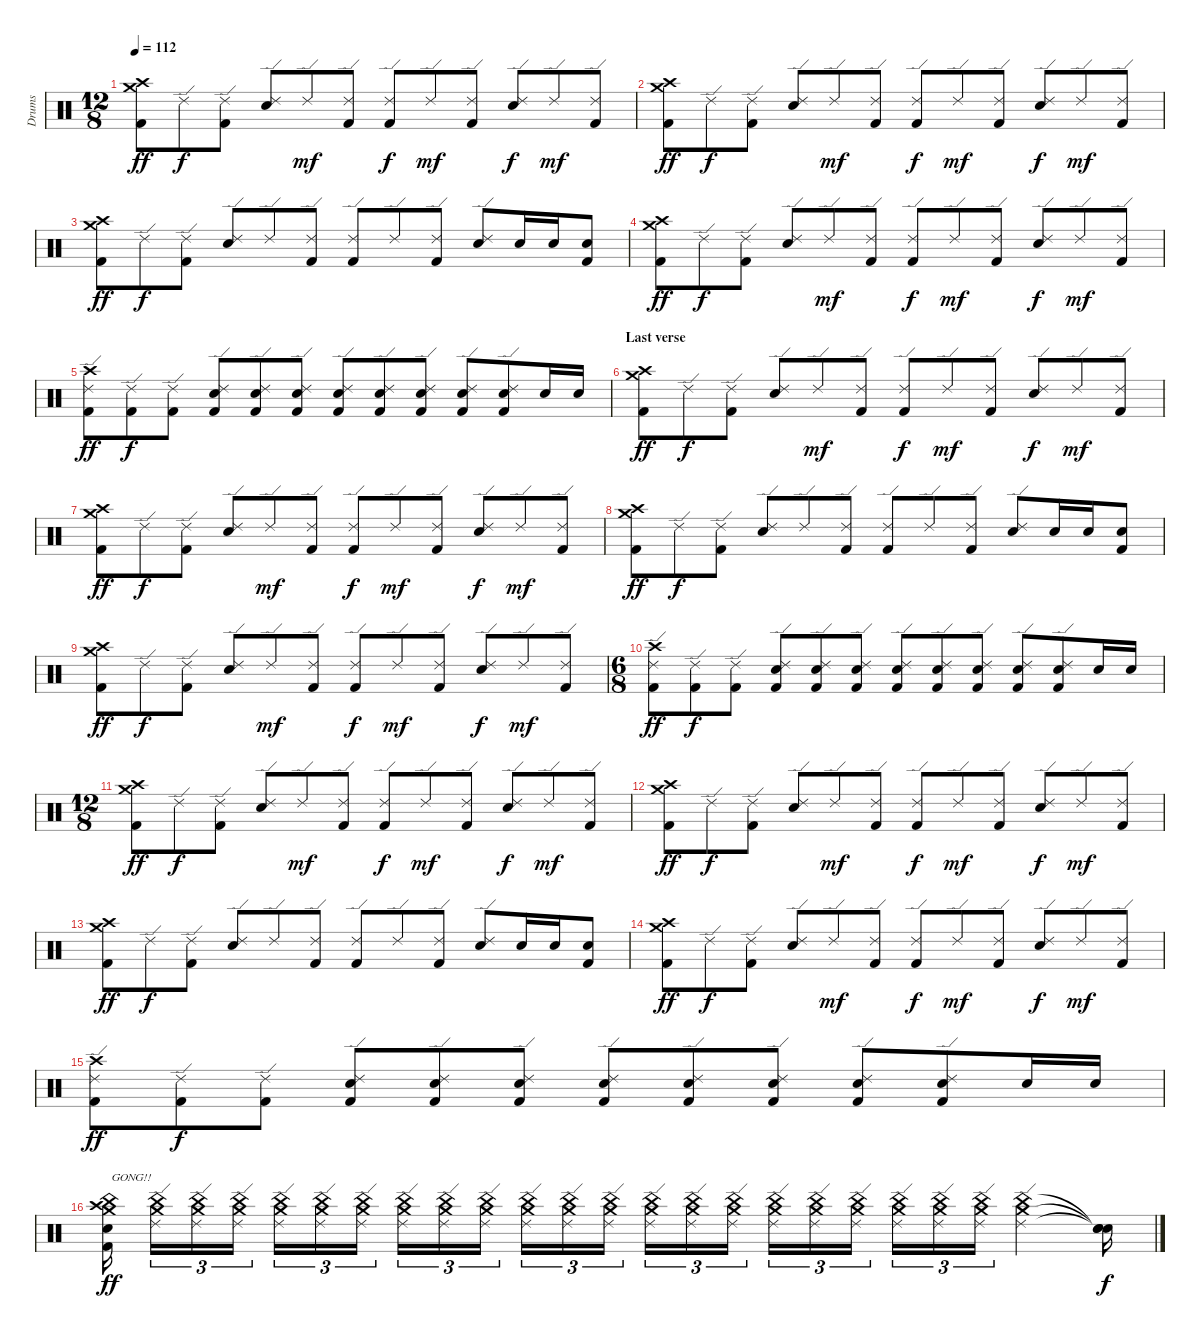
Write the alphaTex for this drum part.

\track ("Drums" "Drums") {instrument percussion}
\staff {score}
\articulation defaults
\ts (12 8)
\tempo 112
\clef neutral
\ks c
("Crash high (hit)" "Crash medium (hit)" "Kick (hit) 2").8{dy ff} "Ride (edge) 2".8{dy f} ("Ride (edge) 2" "Kick (hit) 2").8 ("Ride (edge) 2" "Snare (hit) 2").8 "Ride (edge) 2".8{dy mf} ("Ride (edge) 2" "Kick (hit) 2").8 ("Ride (edge) 2" "Kick (hit) 2").8{dy f} "Ride (edge) 2".8{dy mf} ("Ride (edge) 2" "Kick (hit) 2").8 ("Ride (edge) 2" "Snare (hit) 2").8{dy f} "Ride (edge) 2".8{dy mf} ("Ride (edge) 2" "Kick (hit) 2").8 |
("Crash high (hit)" "Crash medium (hit)" "Kick (hit) 2").8{dy ff} "Ride (edge) 2".8{dy f} ("Ride (edge) 2" "Kick (hit) 2").8 ("Ride (edge) 2" "Snare (hit) 2").8 "Ride (edge) 2".8{dy mf} ("Ride (edge) 2" "Kick (hit) 2").8 ("Ride (edge) 2" "Kick (hit) 2").8{dy f} "Ride (edge) 2".8{dy mf} ("Ride (edge) 2" "Kick (hit) 2").8 ("Ride (edge) 2" "Snare (hit) 2").8{dy f} "Ride (edge) 2".8{dy mf} ("Ride (edge) 2" "Kick (hit) 2").8 |
("Crash high (hit)" "Crash medium (hit)" "Kick (hit) 2").8{dy ff} "Ride (edge) 2".8{dy f} ("Ride (edge) 2" "Kick (hit) 2").8 ("Ride (edge) 2" "Snare (hit) 2").8 "Ride (edge) 2".8 ("Ride (edge) 2" "Kick (hit) 2").8 ("Ride (edge) 2" "Kick (hit) 2").8 "Ride (edge) 2".8 ("Ride (edge) 2" "Kick (hit) 2").8 ("Ride (edge) 2" "Snare (hit) 2").8 "Snare (hit) 2".16 "Snare (hit) 2".16 ("Snare (hit) 2" "Kick (hit) 2").8 |
("Crash high (hit)" "Crash medium (hit)" "Kick (hit) 2").8{dy ff} "Ride (edge) 2".8{dy f} ("Ride (edge) 2" "Kick (hit) 2").8 ("Ride (edge) 2" "Snare (hit) 2").8 "Ride (edge) 2".8{dy mf} ("Ride (edge) 2" "Kick (hit) 2").8 ("Ride (edge) 2" "Kick (hit) 2").8{dy f} "Ride (edge) 2".8{dy mf} ("Ride (edge) 2" "Kick (hit) 2").8 ("Ride (edge) 2" "Snare (hit) 2").8{dy f} "Ride (edge) 2".8{dy mf} ("Ride (edge) 2" "Kick (hit) 2").8 |
("Ride (edge) 2" "Crash high (hit)" "Kick (hit) 2").8{dy ff} ("Ride (edge) 2" "Kick (hit) 2").8{dy f} ("Ride (edge) 2" "Kick (hit) 2").8 ("Ride (edge) 2" "Snare (hit) 2" "Kick (hit) 2").8 ("Ride (edge) 2" "Snare (hit) 2" "Kick (hit) 2").8 ("Ride (edge) 2" "Snare (hit) 2" "Kick (hit) 2").8 ("Ride (edge) 2" "Snare (hit) 2" "Kick (hit) 2").8 ("Ride (edge) 2" "Snare (hit) 2" "Kick (hit) 2").8 ("Ride (edge) 2" "Snare (hit) 2" "Kick (hit) 2").8 ("Ride (edge) 2" "Snare (hit) 2" "Kick (hit) 2").8 ("Ride (edge) 2" "Snare (hit) 2" "Kick (hit) 2").8 "Snare (hit) 2".16 "Snare (hit) 2".16 |
\section ("" "Last verse")
("Crash high (hit)" "Crash medium (hit)" "Kick (hit) 2").8{dy ff} "Ride (edge) 2".8{dy f} ("Ride (edge) 2" "Kick (hit) 2").8 ("Ride (edge) 2" "Snare (hit) 2").8 "Ride (edge) 2".8{dy mf} ("Ride (edge) 2" "Kick (hit) 2").8 ("Ride (edge) 2" "Kick (hit) 2").8{dy f} "Ride (edge) 2".8{dy mf} ("Ride (edge) 2" "Kick (hit) 2").8 ("Ride (edge) 2" "Snare (hit) 2").8{dy f} "Ride (edge) 2".8{dy mf} ("Ride (edge) 2" "Kick (hit) 2").8 |
("Crash high (hit)" "Crash medium (hit)" "Kick (hit) 2").8{dy ff} "Ride (edge) 2".8{dy f} ("Ride (edge) 2" "Kick (hit) 2").8 ("Ride (edge) 2" "Snare (hit) 2").8 "Ride (edge) 2".8{dy mf} ("Ride (edge) 2" "Kick (hit) 2").8 ("Ride (edge) 2" "Kick (hit) 2").8{dy f} "Ride (edge) 2".8{dy mf} ("Ride (edge) 2" "Kick (hit) 2").8 ("Ride (edge) 2" "Snare (hit) 2").8{dy f} "Ride (edge) 2".8{dy mf} ("Ride (edge) 2" "Kick (hit) 2").8 |
("Crash high (hit)" "Crash medium (hit)" "Kick (hit) 2").8{dy ff} "Ride (edge) 2".8{dy f} ("Ride (edge) 2" "Kick (hit) 2").8 ("Ride (edge) 2" "Snare (hit) 2").8 "Ride (edge) 2".8 ("Ride (edge) 2" "Kick (hit) 2").8 ("Ride (edge) 2" "Kick (hit) 2").8 "Ride (edge) 2".8 ("Ride (edge) 2" "Kick (hit) 2").8 ("Ride (edge) 2" "Snare (hit) 2").8 "Snare (hit) 2".16 "Snare (hit) 2".16 ("Snare (hit) 2" "Kick (hit) 2").8 |
("Crash high (hit)" "Crash medium (hit)" "Kick (hit) 2").8{dy ff} "Ride (edge) 2".8{dy f} ("Ride (edge) 2" "Kick (hit) 2").8 ("Ride (edge) 2" "Snare (hit) 2").8 "Ride (edge) 2".8{dy mf} ("Ride (edge) 2" "Kick (hit) 2").8 ("Ride (edge) 2" "Kick (hit) 2").8{dy f} "Ride (edge) 2".8{dy mf} ("Ride (edge) 2" "Kick (hit) 2").8 ("Ride (edge) 2" "Snare (hit) 2").8{dy f} "Ride (edge) 2".8{dy mf} ("Ride (edge) 2" "Kick (hit) 2").8 |
\ts (6 8)
("Ride (edge) 2" "Crash high (hit)" "Kick (hit) 2").8{dy ff} ("Ride (edge) 2" "Kick (hit) 2").8{dy f} ("Ride (edge) 2" "Kick (hit) 2").8 ("Ride (edge) 2" "Snare (hit) 2" "Kick (hit) 2").8 ("Ride (edge) 2" "Snare (hit) 2" "Kick (hit) 2").8 ("Ride (edge) 2" "Snare (hit) 2" "Kick (hit) 2").8 ("Ride (edge) 2" "Snare (hit) 2" "Kick (hit) 2").8 ("Ride (edge) 2" "Snare (hit) 2" "Kick (hit) 2").8 ("Ride (edge) 2" "Snare (hit) 2" "Kick (hit) 2").8 ("Ride (edge) 2" "Snare (hit) 2" "Kick (hit) 2").8 ("Ride (edge) 2" "Snare (hit) 2" "Kick (hit) 2").8 "Snare (hit) 2".16 "Snare (hit) 2".16 |
\ts (12 8)
("Crash high (hit)" "Crash medium (hit)" "Kick (hit) 2").8{dy ff} "Ride (edge) 2".8{dy f} ("Ride (edge) 2" "Kick (hit) 2").8 ("Ride (edge) 2" "Snare (hit) 2").8 "Ride (edge) 2".8{dy mf} ("Ride (edge) 2" "Kick (hit) 2").8 ("Ride (edge) 2" "Kick (hit) 2").8{dy f} "Ride (edge) 2".8{dy mf} ("Ride (edge) 2" "Kick (hit) 2").8 ("Ride (edge) 2" "Snare (hit) 2").8{dy f} "Ride (edge) 2".8{dy mf} ("Ride (edge) 2" "Kick (hit) 2").8 |
("Crash high (hit)" "Crash medium (hit)" "Kick (hit) 2").8{dy ff} "Ride (edge) 2".8{dy f} ("Ride (edge) 2" "Kick (hit) 2").8 ("Ride (edge) 2" "Snare (hit) 2").8 "Ride (edge) 2".8{dy mf} ("Ride (edge) 2" "Kick (hit) 2").8 ("Ride (edge) 2" "Kick (hit) 2").8{dy f} "Ride (edge) 2".8{dy mf} ("Ride (edge) 2" "Kick (hit) 2").8 ("Ride (edge) 2" "Snare (hit) 2").8{dy f} "Ride (edge) 2".8{dy mf} ("Ride (edge) 2" "Kick (hit) 2").8 |
("Crash high (hit)" "Crash medium (hit)" "Kick (hit) 2").8{dy ff} "Ride (edge) 2".8{dy f} ("Ride (edge) 2" "Kick (hit) 2").8 ("Ride (edge) 2" "Snare (hit) 2").8 "Ride (edge) 2".8 ("Ride (edge) 2" "Kick (hit) 2").8 ("Ride (edge) 2" "Kick (hit) 2").8 "Ride (edge) 2".8 ("Ride (edge) 2" "Kick (hit) 2").8 ("Ride (edge) 2" "Snare (hit) 2").8 "Snare (hit) 2".16 "Snare (hit) 2".16 ("Snare (hit) 2" "Kick (hit) 2").8 |
("Crash high (hit)" "Crash medium (hit)" "Kick (hit) 2").8{dy ff} "Ride (edge) 2".8{dy f} ("Ride (edge) 2" "Kick (hit) 2").8 ("Ride (edge) 2" "Snare (hit) 2").8 "Ride (edge) 2".8{dy mf} ("Ride (edge) 2" "Kick (hit) 2").8 ("Ride (edge) 2" "Kick (hit) 2").8{dy f} "Ride (edge) 2".8{dy mf} ("Ride (edge) 2" "Kick (hit) 2").8 ("Ride (edge) 2" "Snare (hit) 2").8{dy f} "Ride (edge) 2".8{dy mf} ("Ride (edge) 2" "Kick (hit) 2").8 |
("Ride (edge) 2" "Crash high (hit)" "Kick (hit) 2").8{dy ff} ("Ride (edge) 2" "Kick (hit) 2").8{dy f} ("Ride (edge) 2" "Kick (hit) 2").8 ("Ride (edge) 2" "Snare (hit) 2" "Kick (hit) 2").8 ("Ride (edge) 2" "Snare (hit) 2" "Kick (hit) 2").8 ("Ride (edge) 2" "Snare (hit) 2" "Kick (hit) 2").8 ("Ride (edge) 2" "Snare (hit) 2" "Kick (hit) 2").8 ("Ride (edge) 2" "Snare (hit) 2" "Kick (hit) 2").8 ("Ride (edge) 2" "Snare (hit) 2" "Kick (hit) 2").8 ("Ride (edge) 2" "Snare (hit) 2" "Kick (hit) 2").8 ("Ride (edge) 2" "Snare (hit) 2" "Kick (hit) 2").8 "Snare (hit) 2".16 "Snare (hit) 2".16 |
("China (hit)" "Crash high (hit)" "Crash medium (hit)" "Snare (hit) 2" "Kick (hit) 2").16{txt "GONG!!" dy ff} ("China (hit)" "Ride (edge) 2" "Crash medium (hit)").16{tu (3 2)} ("China (hit)" "Ride (edge) 2" "Crash medium (hit)").16{tu (3 2)} ("China (hit)" "Ride (edge) 2" "Crash medium (hit)").16{tu (3 2)} ("China (hit)" "Ride (edge) 2" "Crash medium (hit)").16{tu (3 2)} ("China (hit)" "Ride (edge) 2" "Crash medium (hit)").16{tu (3 2)} ("China (hit)" "Ride (edge) 2" "Crash medium (hit)").16{tu (3 2)} ("China (hit)" "Ride (edge) 2" "Crash medium (hit)").16{tu (3 2)} ("China (hit)" "Ride (edge) 2" "Crash medium (hit)").16{tu (3 2)} ("China (hit)" "Ride (edge) 2" "Crash medium (hit)").16{tu (3 2)} ("China (hit)" "Ride (edge) 2" "Crash medium (hit)").16{tu (3 2)} ("China (hit)" "Ride (edge) 2" "Crash medium (hit)").16{tu (3 2)} ("China (hit)" "Ride (edge) 2" "Crash medium (hit)").16{tu (3 2)} ("China (hit)" "Ride (edge) 2" "Crash medium (hit)").16{tu (3 2)} ("China (hit)" "Ride (edge) 2" "Crash medium (hit)").16{tu (3 2)} ("China (hit)" "Ride (edge) 2" "Crash medium (hit)").16{tu (3 2)} ("China (hit)" "Ride (edge) 2" "Crash medium (hit)").16{tu (3 2)} ("China (hit)" "Ride (edge) 2" "Crash medium (hit)").16{tu (3 2)} ("China (hit)" "Ride (edge) 2" "Crash medium (hit)").16{tu (3 2)} ("China (hit)" "Ride (edge) 2" "Crash medium (hit)").16{tu (3 2)} ("China (hit)" "Ride (edge) 2" "Crash medium (hit)").16{tu (3 2)} ("China (hit)" "Ride (edge) 2" "Crash medium (hit)").16{tu (3 2)} ("China (hit)" "Ride (edge) 2" "Crash medium (hit)").2 ("Snare (hit)"{t} "Snare (hit)"{t} "Snare (hit)"{t}).16{dy f}
